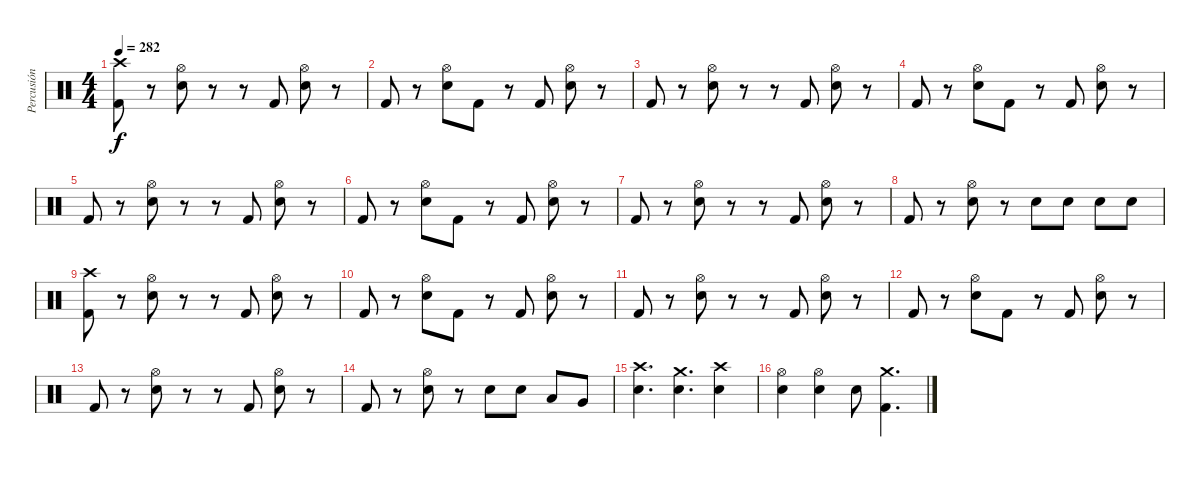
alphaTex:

\track ("Percusión" "Percusión") {instrument percussion}
\staff {score}
\articulation defaults
\ts (4 4)
\tempo 282
\clef neutral
\ks c
("Kick (hit) 2" "Crash high (hit)").8{dy f} r.8 ("Snare (hit) 2" "Hi-Hat (open)").8 r.8 r.8 "Kick (hit) 2".8 ("Snare (hit) 2" "Hi-Hat (open)").8 r.8 |
"Kick (hit) 2".8 r.8 ("Snare (hit) 2" "Hi-Hat (open)").8 "Kick (hit) 2".8 r.8 "Kick (hit) 2".8 ("Snare (hit) 2" "Hi-Hat (open)").8 r.8 |
"Kick (hit) 2".8 r.8 ("Snare (hit) 2" "Hi-Hat (open)").8 r.8 r.8 "Kick (hit) 2".8 ("Snare (hit) 2" "Hi-Hat (open)").8 r.8 |
"Kick (hit) 2".8 r.8 ("Snare (hit) 2" "Hi-Hat (open)").8 "Kick (hit) 2".8 r.8 "Kick (hit) 2".8 ("Snare (hit) 2" "Hi-Hat (open)").8 r.8 |
"Kick (hit) 2".8 r.8 ("Snare (hit) 2" "Hi-Hat (open)").8 r.8 r.8 "Kick (hit) 2".8 ("Snare (hit) 2" "Hi-Hat (open)").8 r.8 |
"Kick (hit) 2".8 r.8 ("Snare (hit) 2" "Hi-Hat (open)").8 "Kick (hit) 2".8 r.8 "Kick (hit) 2".8 ("Snare (hit) 2" "Hi-Hat (open)").8 r.8 |
"Kick (hit) 2".8 r.8 ("Snare (hit) 2" "Hi-Hat (open)").8 r.8 r.8 "Kick (hit) 2".8 ("Snare (hit) 2" "Hi-Hat (open)").8 r.8 |
"Kick (hit) 2".8 r.8 ("Snare (hit) 2" "Hi-Hat (open)").8 r.8 "Snare (hit) 2".8 "Snare (hit) 2".8 "Snare (hit) 2".8 "Snare (hit) 2".8 |
("Kick (hit) 2" "Crash high (hit)").8 r.8 ("Snare (hit) 2" "Hi-Hat (open)").8 r.8 r.8 "Kick (hit) 2".8 ("Snare (hit) 2" "Hi-Hat (open)").8 r.8 |
"Kick (hit) 2".8 r.8 ("Snare (hit) 2" "Hi-Hat (open)").8 "Kick (hit) 2".8 r.8 "Kick (hit) 2".8 ("Snare (hit) 2" "Hi-Hat (open)").8 r.8 |
"Kick (hit) 2".8 r.8 ("Snare (hit) 2" "Hi-Hat (open)").8 r.8 r.8 "Kick (hit) 2".8 ("Snare (hit) 2" "Hi-Hat (open)").8 r.8 |
"Kick (hit) 2".8 r.8 ("Snare (hit) 2" "Hi-Hat (open)").8 "Kick (hit) 2".8 r.8 "Kick (hit) 2".8 ("Snare (hit) 2" "Hi-Hat (open)").8 r.8 |
"Kick (hit) 2".8 r.8 ("Snare (hit) 2" "Hi-Hat (open)").8 r.8 r.8 "Kick (hit) 2".8 ("Snare (hit) 2" "Hi-Hat (open)").8 r.8 |
"Kick (hit) 2".8 r.8 ("Snare (hit) 2" "Hi-Hat (open)").8 r.8 "Snare (hit) 2".8 "Snare (hit) 2".8 "Low Tom (hit)".8 "Very Low Tom (hit)".8 |
("Snare (hit) 2" "Crash high (hit)").4{d} ("Snare (hit) 2" "Crash medium (hit)").4{d} ("Snare (hit) 2" "Crash high (hit)").4 |
("Snare (hit) 2" "Hi-Hat (open)").4 ("Snare (hit) 2" "Hi-Hat (open)").4 "Snare (hit) 2".8 ("Kick (hit) 2" "Crash medium (hit)").4{d}
